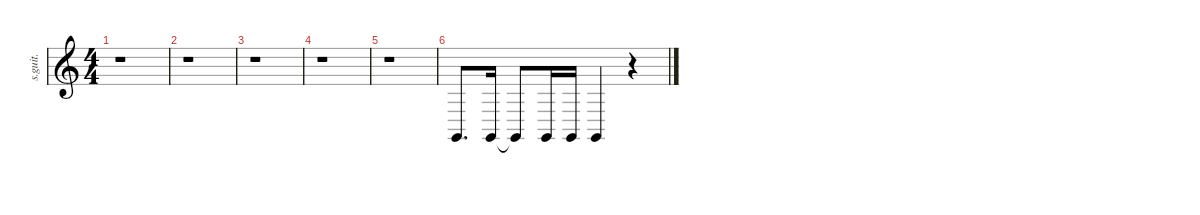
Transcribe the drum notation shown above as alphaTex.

\defaultSystemsLayout 4
\hideDynamics
\bracketExtendMode nobrackets
\track ("Mariachi Band | Percussion" "s.guit.") {instrument percussion}
\staff {score}
\articulation defaults
\ts (4 4)
\tempo (173 hide)
\clef g2
\ks c
r.1{dy f} |
r.1 |
r.1 |
r.1 |
r.1 |
"Claves (hit)".8{d lyrics (0 "") lyrics (1 "") lyrics (2 "") lyrics (3 "") lyrics (4 "")} "Claves (hit)".16{lyrics (0 "") lyrics (1 "") lyrics (2 "") lyrics (3 "") lyrics (4 "")} "Claves (hit)"{t}.8{lyrics (0 "") lyrics (1 "") lyrics (2 "") lyrics (3 "") lyrics (4 "")} "Claves (hit)".16{lyrics (0 "") lyrics (1 "") lyrics (2 "") lyrics (3 "") lyrics (4 "")} "Claves (hit)".16{lyrics (0 "") lyrics (1 "") lyrics (2 "") lyrics (3 "") lyrics (4 "")} "Claves (hit)".4{lyrics (0 "") lyrics (1 "") lyrics (2 "") lyrics (3 "") lyrics (4 "")} r.4
